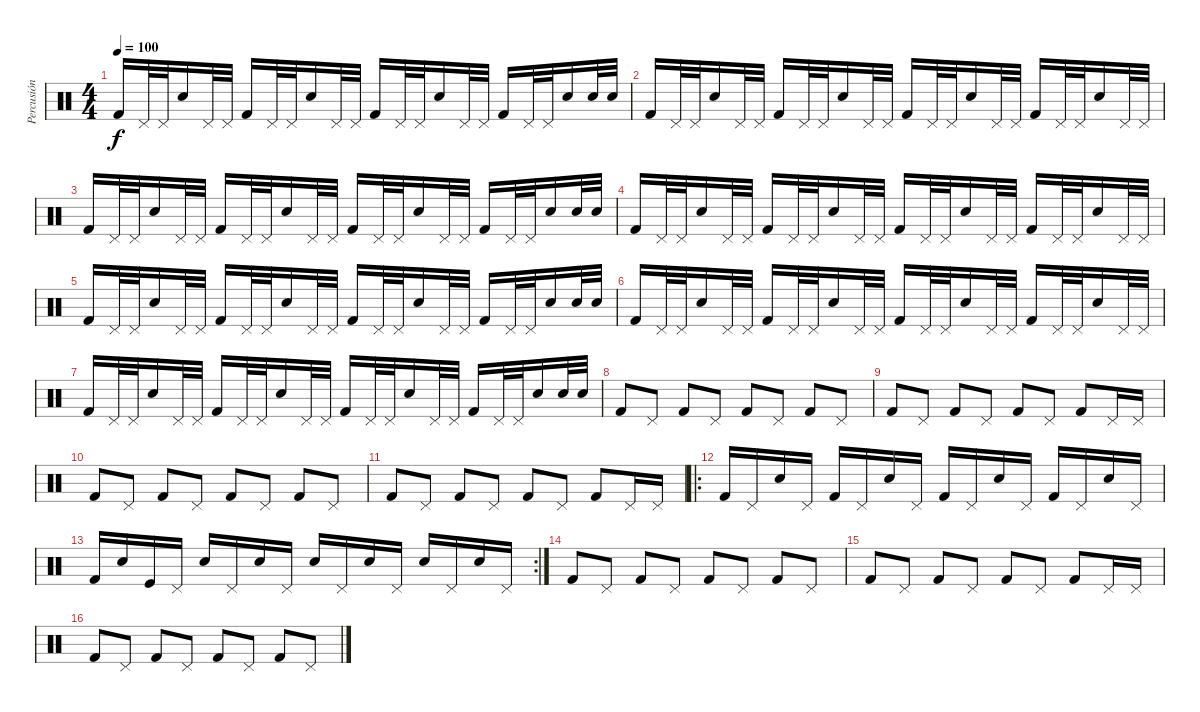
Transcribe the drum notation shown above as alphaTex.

\track ("Percusión" "Percusión") {instrument percussion}
\staff {score}
\articulation defaults
\ts (4 4)
\tempo 100
\clef neutral
\ks c "Kick (hit) 2".16{dy f} "Pedal Hi-Hat (hit)".32 "Pedal Hi-Hat (hit)".32 "Snare (hit) 2".16 "Pedal Hi-Hat (hit)".32 "Pedal Hi-Hat (hit)".32 "Kick (hit) 2".16 "Pedal Hi-Hat (hit)".32 "Pedal Hi-Hat (hit)".32 "Snare (hit) 2".16 "Pedal Hi-Hat (hit)".32 "Pedal Hi-Hat (hit)".32 "Kick (hit) 2".16 "Pedal Hi-Hat (hit)".32 "Pedal Hi-Hat (hit)".32 "Snare (hit) 2".16 "Pedal Hi-Hat (hit)".32 "Pedal Hi-Hat (hit)".32 "Kick (hit) 2".16 "Pedal Hi-Hat (hit)".32 "Pedal Hi-Hat (hit)".32 "Snare (hit) 2".16 "Snare (hit) 2".32 "Snare (hit) 2".32
|
"Kick (hit) 2".16 "Pedal Hi-Hat (hit)".32 "Pedal Hi-Hat (hit)".32 "Snare (hit) 2".16 "Pedal Hi-Hat (hit)".32 "Pedal Hi-Hat (hit)".32 "Kick (hit) 2".16 "Pedal Hi-Hat (hit)".32 "Pedal Hi-Hat (hit)".32 "Snare (hit) 2".16 "Pedal Hi-Hat (hit)".32 "Pedal Hi-Hat (hit)".32 "Kick (hit) 2".16 "Pedal Hi-Hat (hit)".32 "Pedal Hi-Hat (hit)".32 "Snare (hit) 2".16 "Pedal Hi-Hat (hit)".32 "Pedal Hi-Hat (hit)".32 "Kick (hit) 2".16 "Pedal Hi-Hat (hit)".32 "Pedal Hi-Hat (hit)".32 "Snare (hit) 2".16 "Pedal Hi-Hat (hit)".32 "Pedal Hi-Hat (hit)".32 |
"Kick (hit) 2".16 "Pedal Hi-Hat (hit)".32 "Pedal Hi-Hat (hit)".32 "Snare (hit) 2".16 "Pedal Hi-Hat (hit)".32 "Pedal Hi-Hat (hit)".32 "Kick (hit) 2".16 "Pedal Hi-Hat (hit)".32 "Pedal Hi-Hat (hit)".32 "Snare (hit) 2".16 "Pedal Hi-Hat (hit)".32 "Pedal Hi-Hat (hit)".32 "Kick (hit) 2".16 "Pedal Hi-Hat (hit)".32 "Pedal Hi-Hat (hit)".32 "Snare (hit) 2".16 "Pedal Hi-Hat (hit)".32 "Pedal Hi-Hat (hit)".32 "Kick (hit) 2".16 "Pedal Hi-Hat (hit)".32 "Pedal Hi-Hat (hit)".32 "Snare (hit) 2".16 "Snare (hit) 2".32 "Snare (hit) 2".32 |
"Kick (hit) 2".16 "Pedal Hi-Hat (hit)".32 "Pedal Hi-Hat (hit)".32 "Snare (hit) 2".16 "Pedal Hi-Hat (hit)".32 "Pedal Hi-Hat (hit)".32 "Kick (hit) 2".16 "Pedal Hi-Hat (hit)".32 "Pedal Hi-Hat (hit)".32 "Snare (hit) 2".16 "Pedal Hi-Hat (hit)".32 "Pedal Hi-Hat (hit)".32 "Kick (hit) 2".16 "Pedal Hi-Hat (hit)".32 "Pedal Hi-Hat (hit)".32 "Snare (hit) 2".16 "Pedal Hi-Hat (hit)".32 "Pedal Hi-Hat (hit)".32 "Kick (hit) 2".16 "Pedal Hi-Hat (hit)".32 "Pedal Hi-Hat (hit)".32 "Snare (hit) 2".16 "Pedal Hi-Hat (hit)".32 "Pedal Hi-Hat (hit)".32 |
"Kick (hit) 2".16 "Pedal Hi-Hat (hit)".32 "Pedal Hi-Hat (hit)".32 "Snare (hit) 2".16 "Pedal Hi-Hat (hit)".32 "Pedal Hi-Hat (hit)".32 "Kick (hit) 2".16 "Pedal Hi-Hat (hit)".32 "Pedal Hi-Hat (hit)".32 "Snare (hit) 2".16 "Pedal Hi-Hat (hit)".32 "Pedal Hi-Hat (hit)".32 "Kick (hit) 2".16 "Pedal Hi-Hat (hit)".32 "Pedal Hi-Hat (hit)".32 "Snare (hit) 2".16 "Pedal Hi-Hat (hit)".32 "Pedal Hi-Hat (hit)".32 "Kick (hit) 2".16 "Pedal Hi-Hat (hit)".32 "Pedal Hi-Hat (hit)".32 "Snare (hit) 2".16 "Snare (hit) 2".32 "Snare (hit) 2".32 |
"Kick (hit) 2".16 "Pedal Hi-Hat (hit)".32 "Pedal Hi-Hat (hit)".32 "Snare (hit) 2".16 "Pedal Hi-Hat (hit)".32 "Pedal Hi-Hat (hit)".32 "Kick (hit) 2".16 "Pedal Hi-Hat (hit)".32 "Pedal Hi-Hat (hit)".32 "Snare (hit) 2".16 "Pedal Hi-Hat (hit)".32 "Pedal Hi-Hat (hit)".32 "Kick (hit) 2".16 "Pedal Hi-Hat (hit)".32 "Pedal Hi-Hat (hit)".32 "Snare (hit) 2".16 "Pedal Hi-Hat (hit)".32 "Pedal Hi-Hat (hit)".32 "Kick (hit) 2".16 "Pedal Hi-Hat (hit)".32 "Pedal Hi-Hat (hit)".32 "Snare (hit) 2".16 "Pedal Hi-Hat (hit)".32 "Pedal Hi-Hat (hit)".32 |
"Kick (hit) 2".16 "Pedal Hi-Hat (hit)".32 "Pedal Hi-Hat (hit)".32 "Snare (hit) 2".16 "Pedal Hi-Hat (hit)".32 "Pedal Hi-Hat (hit)".32 "Kick (hit) 2".16 "Pedal Hi-Hat (hit)".32 "Pedal Hi-Hat (hit)".32 "Snare (hit) 2".16 "Pedal Hi-Hat (hit)".32 "Pedal Hi-Hat (hit)".32 "Kick (hit) 2".16 "Pedal Hi-Hat (hit)".32 "Pedal Hi-Hat (hit)".32 "Snare (hit) 2".16 "Pedal Hi-Hat (hit)".32 "Pedal Hi-Hat (hit)".32 "Kick (hit) 2".16 "Pedal Hi-Hat (hit)".32 "Pedal Hi-Hat (hit)".32 "Snare (hit) 2".16 "Snare (hit) 2".32 "Snare (hit) 2".32 |
"Kick (hit) 2".8 "Pedal Hi-Hat (hit)".8 "Kick (hit) 2".8 "Pedal Hi-Hat (hit)".8 "Kick (hit) 2".8 "Pedal Hi-Hat (hit)".8 "Kick (hit) 2".8 "Pedal Hi-Hat (hit)".8 |
"Kick (hit) 2".8 "Pedal Hi-Hat (hit)".8 "Kick (hit) 2".8 "Pedal Hi-Hat (hit)".8 "Kick (hit) 2".8 "Pedal Hi-Hat (hit)".8 "Kick (hit) 2".8 "Pedal Hi-Hat (hit)".16 "Pedal Hi-Hat (hit)".16 |
"Kick (hit) 2".8 "Pedal Hi-Hat (hit)".8 "Kick (hit) 2".8 "Pedal Hi-Hat (hit)".8 "Kick (hit) 2".8 "Pedal Hi-Hat (hit)".8 "Kick (hit) 2".8 "Pedal Hi-Hat (hit)".8 |
"Kick (hit) 2".8 "Pedal Hi-Hat (hit)".8 "Kick (hit) 2".8 "Pedal Hi-Hat (hit)".8 "Kick (hit) 2".8 "Pedal Hi-Hat (hit)".8 "Kick (hit) 2".8 "Pedal Hi-Hat (hit)".16 "Pedal Hi-Hat (hit)".16 |
\ro "Kick (hit) 2".16 "Pedal Hi-Hat (hit)".16 "Snare (hit) 2".16 "Pedal Hi-Hat (hit)".16 "Kick (hit) 2".16 "Pedal Hi-Hat (hit)".16 "Snare (hit) 2".16 "Pedal Hi-Hat (hit)".16 "Kick (hit) 2".16 "Pedal Hi-Hat (hit)".16 "Snare (hit) 2".16 "Pedal Hi-Hat (hit)".16 "Kick (hit) 2".16 "Pedal Hi-Hat (hit)".16 "Snare (hit) 2".16 "Pedal Hi-Hat (hit)".16
|
\rc 2 "Kick (hit) 2".16 "Snare (hit) 2".16 "Kick (hit)".16 "Pedal Hi-Hat (hit)".16 "Snare (hit) 2".16 "Pedal Hi-Hat (hit)".16 "Snare (hit) 2".16 "Pedal Hi-Hat (hit)".16 "Snare (hit) 2".16 "Pedal Hi-Hat (hit)".16 "Snare (hit) 2".16 "Pedal Hi-Hat (hit)".16 "Snare (hit) 2".16 "Pedal Hi-Hat (hit)".16 "Snare (hit) 2".16 "Pedal Hi-Hat (hit)".16
|
"Kick (hit) 2".8 "Pedal Hi-Hat (hit)".8 "Kick (hit) 2".8 "Pedal Hi-Hat (hit)".8 "Kick (hit) 2".8 "Pedal Hi-Hat (hit)".8 "Kick (hit) 2".8 "Pedal Hi-Hat (hit)".8 |
"Kick (hit) 2".8 "Pedal Hi-Hat (hit)".8 "Kick (hit) 2".8 "Pedal Hi-Hat (hit)".8 "Kick (hit) 2".8 "Pedal Hi-Hat (hit)".8 "Kick (hit) 2".8 "Pedal Hi-Hat (hit)".16 "Pedal Hi-Hat (hit)".16 |
"Kick (hit) 2".8 "Pedal Hi-Hat (hit)".8 "Kick (hit) 2".8 "Pedal Hi-Hat (hit)".8 "Kick (hit) 2".8 "Pedal Hi-Hat (hit)".8 "Kick (hit) 2".8 "Pedal Hi-Hat (hit)".8
